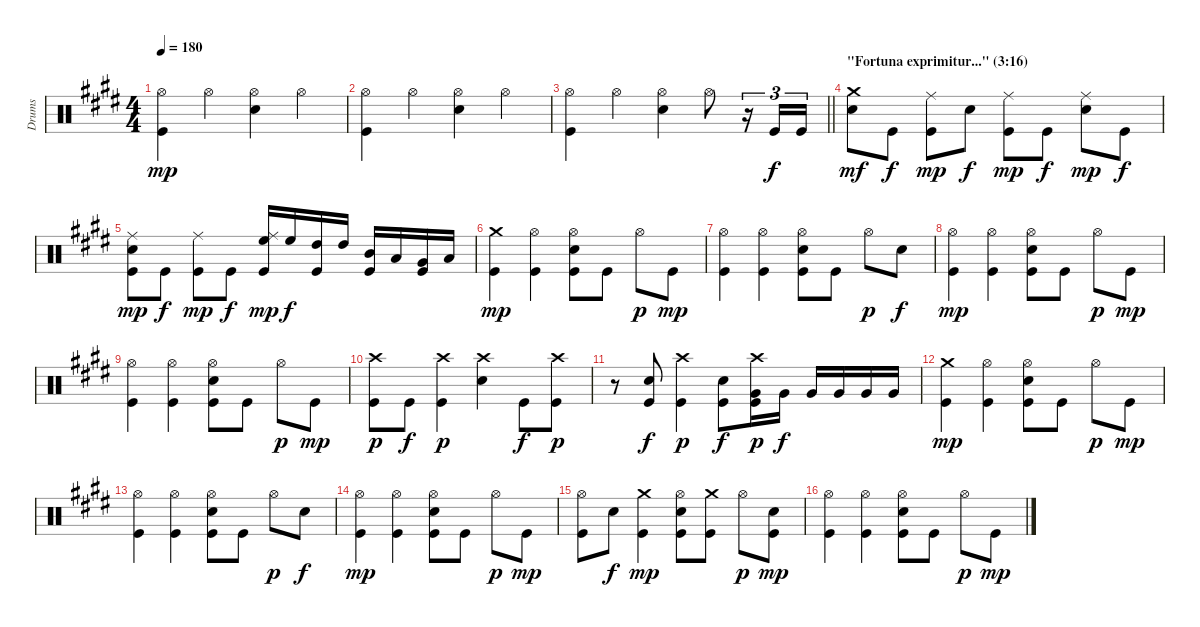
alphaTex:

\track ("Drums" "Drums") {instrument percussion}
\staff {score}
\articulation defaults
\ts (4 4)
\tempo 180
\clef neutral
\ks c#minor
("Hi-Hat (open)" "Kick (hit)").4{dy mp} "Hi-Hat (open)".4 ("Hi-Hat (open)" "Snare (hit) 2").4 "Hi-Hat (open)".4 |
("Hi-Hat (open)" "Kick (hit)").4 "Hi-Hat (open)".4 ("Hi-Hat (open)" "Snare (hit) 2").4 "Hi-Hat (open)".4 |
\barLineRight lightlight
("Hi-Hat (open)" "Kick (hit)").4 "Hi-Hat (open)".4 ("Hi-Hat (open)" "Snare (hit) 2").4 "Hi-Hat (open)".8 r.16{tu (3 2)} "Kick (hit)".16{tu (3 2) dy f} "Kick (hit)".16{tu (3 2)} |
\section ("" "\"Fortuna exprimitur...\" (3:16)")
("Crash medium (hit)" "Snare (hit) 2").8{dy mf} "Kick (hit)".8{dy f} ("Ride (middle)" "Kick (hit)").8{dy mp} "Snare (hit) 2".8{dy f} ("Ride (middle)" "Kick (hit)").8{dy mp} "Kick (hit)".8{dy f} ("Ride (middle)" "Snare (hit) 2").8{dy mp} "Kick (hit)".8{dy f} |
("Ride (middle)" "Snare (hit) 2" "Kick (hit)").8{dy mp} "Kick (hit)".8{dy f} ("Ride (middle)" "Kick (hit)").8{dy mp} "Kick (hit)".8{dy f} ("Ride (middle)" "High Floor Tom (hit)" "Kick (hit)").16{dy mp} "High Floor Tom (hit)".16{dy f} ("High Tom (hit)" "Kick (hit)").16 "High Tom (hit)".16 ("Mid Tom (hit)" "Kick (hit)").16 "Low Tom (hit)".16 ("Very Low Tom (hit)" "Kick (hit)").16 "Low Floor Tom (hit)".16 |
("Crash medium (hit)" "Kick (hit)").4{dy mp} ("Hi-Hat (open)" "Kick (hit)").4 ("Hi-Hat (open)" "Snare (hit) 2" "Kick (hit)").8 "Kick (hit)".8 "Hi-Hat (open)".8{dy p} "Kick (hit)".8{dy mp} |
("Hi-Hat (open)" "Kick (hit)").4 ("Hi-Hat (open)" "Kick (hit)").4 ("Hi-Hat (open)" "Snare (hit) 2" "Kick (hit)").8 "Kick (hit)".8 "Hi-Hat (open)".8{dy p} "Snare (hit) 2".8{dy f} |
("Hi-Hat (open)" "Kick (hit)").4{dy mp} ("Hi-Hat (open)" "Kick (hit)").4 ("Hi-Hat (open)" "Snare (hit) 2" "Kick (hit)").8 "Kick (hit)".8 "Hi-Hat (open)".8{dy p} "Kick (hit)".8{dy mp} |
("Hi-Hat (open)" "Kick (hit)").4 ("Hi-Hat (open)" "Kick (hit)").4 ("Hi-Hat (open)" "Snare (hit) 2" "Kick (hit)").8 "Kick (hit)".8 "Hi-Hat (open)".8{dy p} "Kick (hit)".8{dy mp} |
("Crash high (hit)" "Kick (hit)").8{dy p} "Kick (hit)".8{dy f} ("Crash high (hit)" "Kick (hit)").4{dy p} ("Crash high (hit)" "Snare (hit) 2").4 "Kick (hit)".8{dy f} ("Crash high (hit)" "Kick (hit)").8{dy p} |
r.8 ("Snare (hit) 2" "Kick (hit)").8{dy f} ("Crash high (hit)" "Kick (hit)").4{dy p} ("Snare (hit) 2" "Kick (hit)").8{dy f} ("Crash high (hit)" "Very Low Tom (hit)" "Kick (hit)").16{dy p} "Very Low Tom (hit)".16{dy f} "Very Low Tom (hit)".16 "Very Low Tom (hit)".16 "Very Low Tom (hit)".16 "Very Low Tom (hit)".16 |
("Crash medium (hit)" "Kick (hit)").4{dy mp} ("Hi-Hat (open)" "Kick (hit)").4 ("Hi-Hat (open)" "Snare (hit) 2" "Kick (hit)").8 "Kick (hit)".8 "Hi-Hat (open)".8{dy p} "Kick (hit)".8{dy mp} |
("Hi-Hat (open)" "Kick (hit)").4 ("Hi-Hat (open)" "Kick (hit)").4 ("Hi-Hat (open)" "Snare (hit) 2" "Kick (hit)").8 "Kick (hit)".8 "Hi-Hat (open)".8{dy p} "Snare (hit) 2".8{dy f} |
("Hi-Hat (open)" "Kick (hit)").4{dy mp} ("Hi-Hat (open)" "Kick (hit)").4 ("Hi-Hat (open)" "Snare (hit) 2" "Kick (hit)").8 "Kick (hit)".8 "Hi-Hat (open)".8{dy p} "Kick (hit)".8{dy mp} |
("Hi-Hat (open)" "Kick (hit)").8 "Snare (hit) 2".8{dy f} ("Crash medium (hit)" "Kick (hit)").4{dy mp} ("Hi-Hat (open)" "Snare (hit) 2" "Kick (hit)").8 ("Crash medium (hit)" "Kick (hit)").8 "Hi-Hat (open)".8{dy p} ("Snare (hit) 2" "Kick (hit)").8{dy mp} |
("Hi-Hat (open)" "Kick (hit)").4 ("Hi-Hat (open)" "Kick (hit)").4 ("Hi-Hat (open)" "Snare (hit) 2" "Kick (hit)").8 "Kick (hit)".8 "Hi-Hat (open)".8{dy p} "Kick (hit)".8{dy mp}
